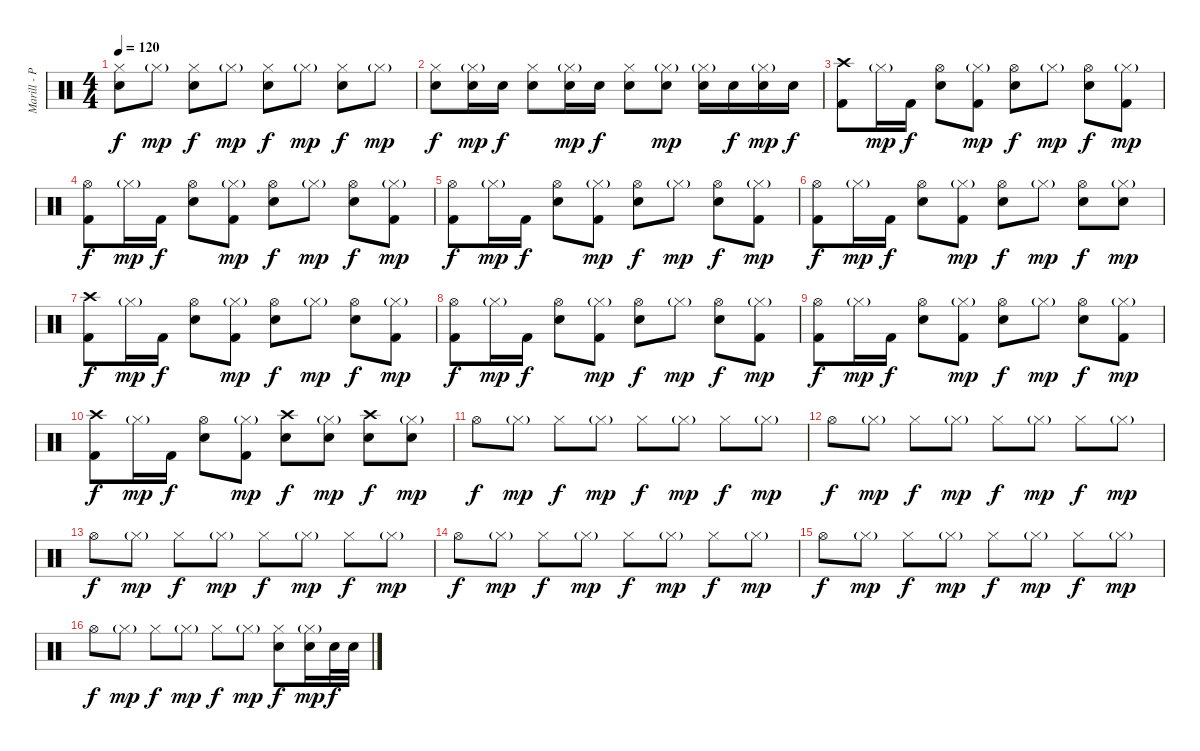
\track ("Marill - Percussion" "Marill - P") {instrument percussion}
\staff {score}
\articulation defaults
\ts (4 4)
\tempo 120
\clef neutral
\ks c
("Hi-Hat (closed)" "Electric Snare (hit)").8{dy f} "Hi-Hat (closed)"{g}.8{dy mp} ("Hi-Hat (closed)" "Electric Snare (hit)").8{dy f} "Hi-Hat (closed)"{g}.8{dy mp} ("Hi-Hat (closed)" "Electric Snare (hit)").8{dy f} "Hi-Hat (closed)"{g}.8{dy mp} ("Hi-Hat (closed)" "Electric Snare (hit)").8{dy f} "Hi-Hat (closed)"{g}.8{dy mp} |
("Hi-Hat (closed)" "Electric Snare (hit)").8{dy f} ("Hi-Hat (closed)"{g} "Electric Snare (hit)").16{dy mp} "Electric Snare (hit)".16{dy f} ("Hi-Hat (closed)" "Electric Snare (hit)").8 ("Hi-Hat (closed)"{g} "Electric Snare (hit)").16{dy mp} "Electric Snare (hit)".16{dy f} ("Hi-Hat (closed)" "Electric Snare (hit)").8 ("Hi-Hat (closed)"{g} "Electric Snare (hit)").8{dy mp} ("Hi-Hat (closed)"{g} "Electric Snare (hit)").16 "Electric Snare (hit)".16{dy f} ("Hi-Hat (closed)"{g} "Electric Snare (hit)").16{dy mp} "Electric Snare (hit)".16{dy f} |
("Crash high (hit)" "Kick (hit) 2").8 "Hi-Hat (closed)"{g}.16{dy mp} "Kick (hit) 2".16{dy f} ("Hi-Hat (open)" "Snare (hit) 2").8 ("Hi-Hat (closed)"{g} "Kick (hit) 2").8{dy mp} ("Hi-Hat (open)" "Snare (hit) 2").8{dy f} "Hi-Hat (closed)"{g}.8{dy mp} ("Hi-Hat (open)" "Snare (hit) 2").8{dy f} ("Hi-Hat (closed)"{g} "Kick (hit) 2").8{dy mp} |
("Hi-Hat (open)" "Kick (hit) 2").8{dy f} "Hi-Hat (closed)"{g}.16{dy mp} "Kick (hit) 2".16{dy f} ("Hi-Hat (open)" "Snare (hit) 2").8 ("Hi-Hat (closed)"{g} "Kick (hit) 2").8{dy mp} ("Hi-Hat (open)" "Snare (hit) 2").8{dy f} "Hi-Hat (closed)"{g}.8{dy mp} ("Hi-Hat (open)" "Snare (hit) 2").8{dy f} ("Hi-Hat (closed)"{g} "Kick (hit) 2").8{dy mp} |
("Hi-Hat (open)" "Kick (hit) 2").8{dy f} "Hi-Hat (closed)"{g}.16{dy mp} "Kick (hit) 2".16{dy f} ("Hi-Hat (open)" "Snare (hit) 2").8 ("Hi-Hat (closed)"{g} "Kick (hit) 2").8{dy mp} ("Hi-Hat (open)" "Snare (hit) 2").8{dy f} "Hi-Hat (closed)"{g}.8{dy mp} ("Hi-Hat (open)" "Snare (hit) 2").8{dy f} ("Hi-Hat (closed)"{g} "Kick (hit) 2").8{dy mp} |
("Hi-Hat (open)" "Kick (hit) 2").8{dy f} "Hi-Hat (closed)"{g}.16{dy mp} "Kick (hit) 2".16{dy f} ("Hi-Hat (open)" "Snare (hit) 2").8 ("Hi-Hat (closed)"{g} "Kick (hit) 2").8{dy mp} ("Hi-Hat (open)" "Snare (hit) 2").8{dy f} "Hi-Hat (closed)"{g}.8{dy mp} ("Hi-Hat (open)" "Snare (hit) 2").8{dy f} ("Hi-Hat (closed)"{g} "Snare (hit) 2").8{dy mp} |
("Crash high (hit)" "Kick (hit) 2").8{dy f} "Hi-Hat (closed)"{g}.16{dy mp} "Kick (hit) 2".16{dy f} ("Hi-Hat (open)" "Snare (hit) 2").8 ("Hi-Hat (closed)"{g} "Kick (hit) 2").8{dy mp} ("Hi-Hat (open)" "Snare (hit) 2").8{dy f} "Hi-Hat (closed)"{g}.8{dy mp} ("Hi-Hat (open)" "Snare (hit) 2").8{dy f} ("Hi-Hat (closed)"{g} "Kick (hit) 2").8{dy mp} |
("Hi-Hat (open)" "Kick (hit) 2").8{dy f} "Hi-Hat (closed)"{g}.16{dy mp} "Kick (hit) 2".16{dy f} ("Hi-Hat (open)" "Snare (hit) 2").8 ("Hi-Hat (closed)"{g} "Kick (hit) 2").8{dy mp} ("Hi-Hat (open)" "Snare (hit) 2").8{dy f} "Hi-Hat (closed)"{g}.8{dy mp} ("Hi-Hat (open)" "Snare (hit) 2").8{dy f} ("Hi-Hat (closed)"{g} "Kick (hit) 2").8{dy mp} |
("Hi-Hat (open)" "Kick (hit) 2").8{dy f} "Hi-Hat (closed)"{g}.16{dy mp} "Kick (hit) 2".16{dy f} ("Hi-Hat (open)" "Snare (hit) 2").8 ("Hi-Hat (closed)"{g} "Kick (hit) 2").8{dy mp} ("Hi-Hat (open)" "Snare (hit) 2").8{dy f} "Hi-Hat (closed)"{g}.8{dy mp} ("Hi-Hat (open)" "Snare (hit) 2").8{dy f} ("Hi-Hat (closed)"{g} "Kick (hit) 2").8{dy mp} |
("Crash high (hit)" "Kick (hit) 2").8{dy f} "Hi-Hat (closed)"{g}.16{dy mp} "Kick (hit) 2".16{dy f} ("Hi-Hat (open)" "Snare (hit) 2").8 ("Hi-Hat (closed)"{g} "Kick (hit) 2").8{dy mp} ("Crash high (hit)" "Snare (hit) 2").8{dy f} ("Hi-Hat (closed)"{g} "Snare (hit) 2").8{dy mp} ("Crash high (hit)" "Snare (hit) 2").8{dy f} ("Hi-Hat (closed)"{g} "Snare (hit) 2").8{dy mp} |
"Hi-Hat (open)".8{dy f} "Hi-Hat (closed)"{g}.8{dy mp} "Hi-Hat (closed)".8{dy f} "Hi-Hat (closed)"{g}.8{dy mp} "Hi-Hat (closed)".8{dy f} "Hi-Hat (closed)"{g}.8{dy mp} "Hi-Hat (closed)".8{dy f} "Hi-Hat (closed)"{g}.8{dy mp} |
"Hi-Hat (open)".8{dy f} "Hi-Hat (closed)"{g}.8{dy mp} "Hi-Hat (closed)".8{dy f} "Hi-Hat (closed)"{g}.8{dy mp} "Hi-Hat (closed)".8{dy f} "Hi-Hat (closed)"{g}.8{dy mp} "Hi-Hat (closed)".8{dy f} "Hi-Hat (closed)"{g}.8{dy mp} |
"Hi-Hat (open)".8{dy f} "Hi-Hat (closed)"{g}.8{dy mp} "Hi-Hat (closed)".8{dy f} "Hi-Hat (closed)"{g}.8{dy mp} "Hi-Hat (closed)".8{dy f} "Hi-Hat (closed)"{g}.8{dy mp} "Hi-Hat (closed)".8{dy f} "Hi-Hat (closed)"{g}.8{dy mp} |
"Hi-Hat (open)".8{dy f} "Hi-Hat (closed)"{g}.8{dy mp} "Hi-Hat (closed)".8{dy f} "Hi-Hat (closed)"{g}.8{dy mp} "Hi-Hat (closed)".8{dy f} "Hi-Hat (closed)"{g}.8{dy mp} "Hi-Hat (closed)".8{dy f} "Hi-Hat (closed)"{g}.8{dy mp} |
"Hi-Hat (open)".8{dy f} "Hi-Hat (closed)"{g}.8{dy mp} "Hi-Hat (closed)".8{dy f} "Hi-Hat (closed)"{g}.8{dy mp} "Hi-Hat (closed)".8{dy f} "Hi-Hat (closed)"{g}.8{dy mp} "Hi-Hat (closed)".8{dy f} "Hi-Hat (closed)"{g}.8{dy mp} |
"Hi-Hat (open)".8{dy f} "Hi-Hat (closed)"{g}.8{dy mp} "Hi-Hat (closed)".8{dy f} "Hi-Hat (closed)"{g}.8{dy mp} "Hi-Hat (closed)".8{dy f} "Hi-Hat (closed)"{g}.8{dy mp} ("Hi-Hat (closed)" "Snare (hit) 2").8{dy f} ("Hi-Hat (closed)"{g} "Snare (hit) 2").16{dy mp} "Snare (hit) 2".32{dy f} "Snare (hit) 2".32
